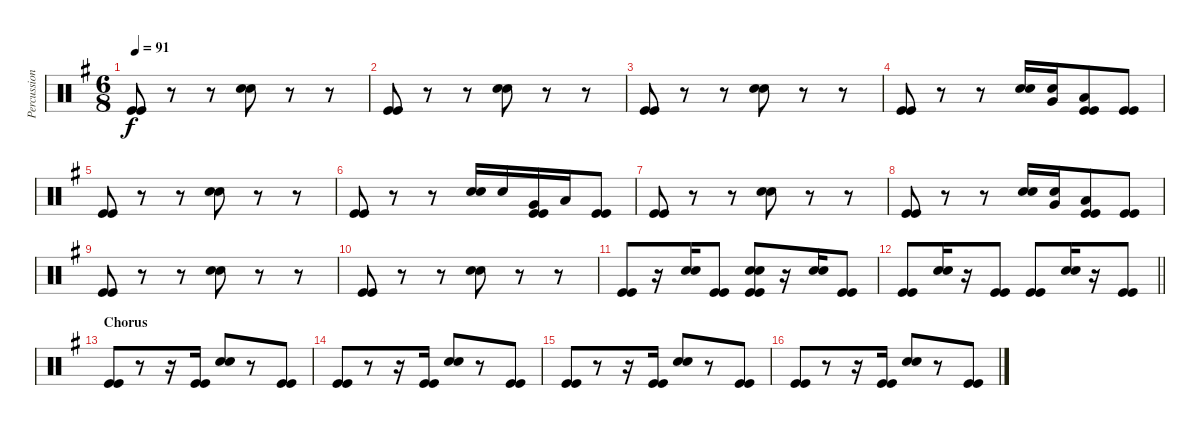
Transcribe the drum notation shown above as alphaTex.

\track ("Percussion (For Volume)" "Percussion") {instrument percussion}
\staff {score}
\articulation defaults
\ts (6 8)
\tempo 91
\clef neutral
\ks eminor
("Kick (hit)" "Kick (hit)").8{dy f} r.8 r.8 ("Electric Snare (hit)" "Electric Snare (hit)").8 r.8 r.8 |
("Kick (hit)" "Kick (hit)").8 r.8 r.8 ("Electric Snare (hit)" "Electric Snare (hit)").8 r.8 r.8 |
("Kick (hit)" "Kick (hit)").8 r.8 r.8 ("Electric Snare (hit)" "Electric Snare (hit)").8 r.8 r.8 |
("Kick (hit)" "Kick (hit)").8 r.8 r.8 ("Electric Snare (hit)" "Electric Snare (hit)").16 ("Electric Snare (hit)" "Very Low Tom (hit)").16 ("Low Floor Tom (hit)" "Kick (hit)" "Kick (hit)").8 ("Kick (hit)" "Kick (hit)").8 |
("Kick (hit)" "Kick (hit)").8 r.8 r.8 ("Electric Snare (hit)" "Electric Snare (hit)").8 r.8 r.8 |
("Kick (hit)" "Kick (hit)").8 r.8 r.8 ("Electric Snare (hit)" "Electric Snare (hit)").16 "Electric Snare (hit)".16 ("Very Low Tom (hit)" "Kick (hit)" "Kick (hit)").16 "Low Floor Tom (hit)".16 ("Kick (hit)" "Kick (hit)").8 |
("Kick (hit)" "Kick (hit)").8 r.8 r.8 ("Electric Snare (hit)" "Electric Snare (hit)").8 r.8 r.8 |
("Kick (hit)" "Kick (hit)").8 r.8 r.8 ("Electric Snare (hit)" "Electric Snare (hit)").16 ("Electric Snare (hit)" "Very Low Tom (hit)").16 ("Low Floor Tom (hit)" "Kick (hit)" "Kick (hit)").8 ("Kick (hit)" "Kick (hit)").8 |
("Kick (hit)" "Kick (hit)").8 r.8 r.8 ("Electric Snare (hit)" "Electric Snare (hit)").8 r.8 r.8 |
("Kick (hit)" "Kick (hit)").8 r.8 r.8 ("Electric Snare (hit)" "Electric Snare (hit)").8 r.8 r.8 |
("Kick (hit)" "Kick (hit)").8 r.16 ("Electric Snare (hit)" "Electric Snare (hit)").16 ("Kick (hit)" "Kick (hit)").8 ("Electric Snare (hit)" "Electric Snare (hit)" "Kick (hit)" "Kick (hit)").8 r.16 ("Electric Snare (hit)" "Electric Snare (hit)").16 ("Kick (hit)" "Kick (hit)").8 |
\barLineRight lightlight
("Kick (hit)" "Kick (hit)").8 ("Electric Snare (hit)" "Electric Snare (hit)").16 r.16 ("Kick (hit)" "Kick (hit)").8 ("Kick (hit)" "Kick (hit)").8 ("Electric Snare (hit)" "Electric Snare (hit)").16 r.16 ("Kick (hit)" "Kick (hit)").8 |
\section ("" "Chorus")
("Kick (hit)" "Kick (hit)").8 r.8 r.16 ("Kick (hit)" "Kick (hit)").16 ("Electric Snare (hit)" "Electric Snare (hit)").8 r.8 ("Kick (hit)" "Kick (hit)").8 |
("Kick (hit)" "Kick (hit)").8 r.8 r.16 ("Kick (hit)" "Kick (hit)").16 ("Electric Snare (hit)" "Electric Snare (hit)").8 r.8 ("Kick (hit)" "Kick (hit)").8 |
("Kick (hit)" "Kick (hit)").8 r.8 r.16 ("Kick (hit)" "Kick (hit)").16 ("Electric Snare (hit)" "Electric Snare (hit)").8 r.8 ("Kick (hit)" "Kick (hit)").8 |
("Kick (hit)" "Kick (hit)").8 r.8 r.16 ("Kick (hit)" "Kick (hit)").16 ("Electric Snare (hit)" "Electric Snare (hit)").8 r.8 ("Kick (hit)" "Kick (hit)").8
